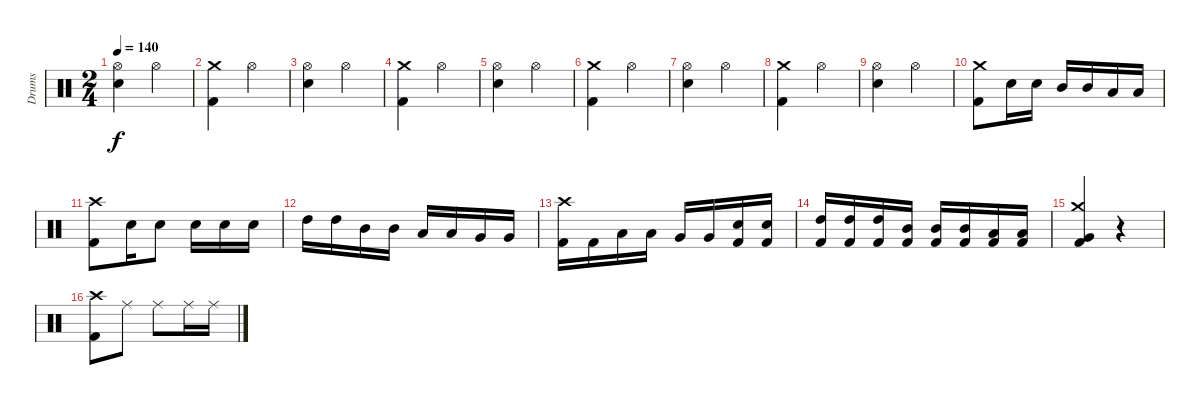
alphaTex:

\track ("Drums" "Drums") {instrument percussion}
\staff {score}
\articulation defaults
\ts (2 4)
\tempo 140
\clef neutral
\ks c
("Electric Snare (hit)" "Hi-Hat (open)").4{dy f} "Hi-Hat (open)".4 |
("Kick (hit) 2" "Crash medium (hit)").4 "Hi-Hat (open)".4 |
("Electric Snare (hit)" "Hi-Hat (open)").4 "Hi-Hat (open)".4 |
("Kick (hit) 2" "Crash medium (hit)").4 "Hi-Hat (open)".4 |
("Electric Snare (hit)" "Hi-Hat (open)").4 "Hi-Hat (open)".4 |
("Kick (hit) 2" "Crash medium (hit)").4 "Hi-Hat (open)".4 |
("Electric Snare (hit)" "Hi-Hat (open)").4 "Hi-Hat (open)".4 |
("Kick (hit) 2" "Crash medium (hit)").4 "Hi-Hat (open)".4 |
("Electric Snare (hit)" "Hi-Hat (open)").4 "Hi-Hat (open)".4 |
("Kick (hit) 2" "Crash medium (hit)").8 "Electric Snare (hit)".16 "Electric Snare (hit)".16 "Mid Tom (hit)".16 "Mid Tom (hit)".16 "Low Tom (hit)".16 "Low Tom (hit)".16 |
("Kick (hit) 2" "Crash high (hit)").8 "Electric Snare (hit)".16 "Electric Snare (hit)".8 "Electric Snare (hit)".16 "Electric Snare (hit)".16 "Electric Snare (hit)".16 |
"High Tom (hit)".16 "High Tom (hit)".16 "Mid Tom (hit)".16 "Mid Tom (hit)".16 "Low Tom (hit)".16 "Low Tom (hit)".16 "Very Low Tom (hit)".16 "Very Low Tom (hit)".16 |
("Kick (hit) 2" "Crash high (hit)").16 "Kick (hit) 2".16 "Low Tom (hit)".16 "Low Tom (hit)".16 "Very Low Tom (hit)".16 "Very Low Tom (hit)".16 ("Kick (hit) 2" "Electric Snare (hit)").16 ("Kick (hit) 2" "Electric Snare (hit)").16 |
("Kick (hit) 2" "High Tom (hit)").16 ("Kick (hit) 2" "High Tom (hit)").16 ("Kick (hit) 2" "High Tom (hit)").16 ("Kick (hit) 2" "Mid Tom (hit)").16 ("Kick (hit) 2" "Mid Tom (hit)").16 ("Kick (hit) 2" "Mid Tom (hit)").16 ("Kick (hit) 2" "Low Tom (hit)").16 ("Kick (hit) 2" "Low Tom (hit)").16 |
("Kick (hit) 2" "Very Low Tom (hit)" "Crash medium (hit)").4 r.4 |
("Kick (hit) 2" "Crash high (hit)").8 "Ride (middle)".8 "Ride (middle)".8 "Ride (middle)".16 "Ride (middle)".16
